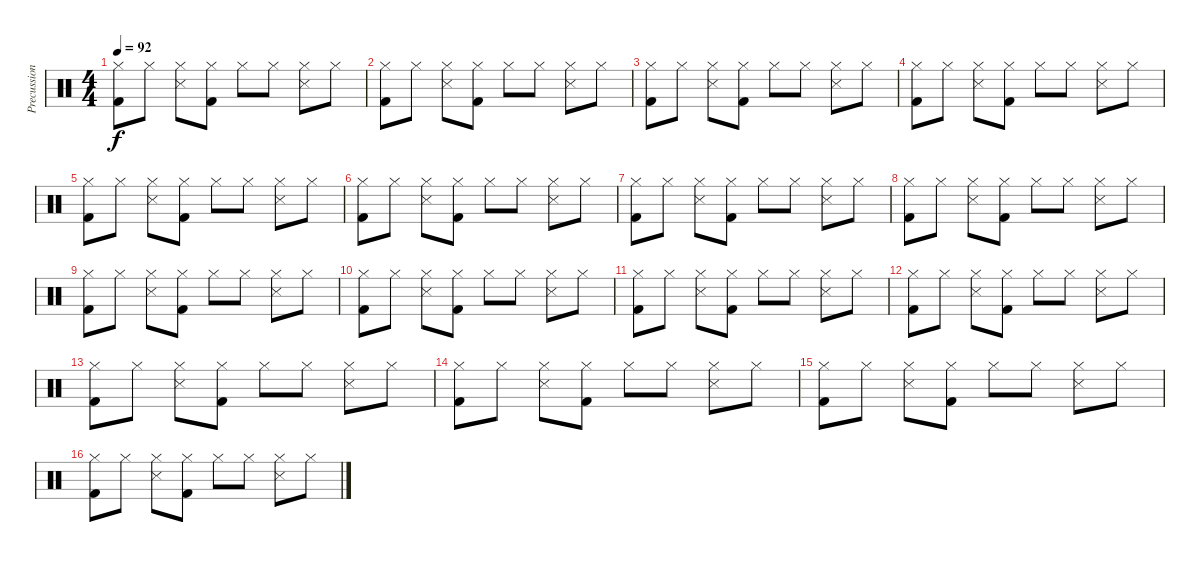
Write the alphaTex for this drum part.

\track ("Precussion" "Precussion") {instrument percussion}
\staff {score}
\articulation defaults
\ts (4 4)
\tempo 92
\clef neutral
\ks c
("Hi-Hat (closed)" "Kick (hit) 2").8{dy f} "Hi-Hat (closed)".8 ("Hi-Hat (closed)" "Snare (side stick) 3").8 ("Hi-Hat (closed)" "Kick (hit) 2").8 "Hi-Hat (closed)".8 "Hi-Hat (closed)".8 ("Hi-Hat (closed)" "Snare (side stick) 3").8 "Hi-Hat (closed)".8 |
("Hi-Hat (closed)" "Kick (hit) 2").8 "Hi-Hat (closed)".8 ("Hi-Hat (closed)" "Snare (side stick) 3").8 ("Hi-Hat (closed)" "Kick (hit) 2").8 "Hi-Hat (closed)".8 "Hi-Hat (closed)".8 ("Hi-Hat (closed)" "Snare (side stick) 3").8 "Hi-Hat (closed)".8 |
("Hi-Hat (closed)" "Kick (hit) 2").8 "Hi-Hat (closed)".8 ("Hi-Hat (closed)" "Snare (side stick) 3").8 ("Hi-Hat (closed)" "Kick (hit) 2").8 "Hi-Hat (closed)".8 "Hi-Hat (closed)".8 ("Hi-Hat (closed)" "Snare (side stick) 3").8 "Hi-Hat (closed)".8 |
("Hi-Hat (closed)" "Kick (hit) 2").8 "Hi-Hat (closed)".8 ("Hi-Hat (closed)" "Snare (side stick) 3").8 ("Hi-Hat (closed)" "Kick (hit) 2").8 "Hi-Hat (closed)".8 "Hi-Hat (closed)".8 ("Hi-Hat (closed)" "Snare (side stick) 3").8 "Hi-Hat (closed)".8 |
("Hi-Hat (closed)" "Kick (hit) 2").8 "Hi-Hat (closed)".8 ("Hi-Hat (closed)" "Snare (side stick) 3").8 ("Hi-Hat (closed)" "Kick (hit) 2").8 "Hi-Hat (closed)".8 "Hi-Hat (closed)".8 ("Hi-Hat (closed)" "Snare (side stick) 3").8 "Hi-Hat (closed)".8 |
("Hi-Hat (closed)" "Kick (hit) 2").8 "Hi-Hat (closed)".8 ("Hi-Hat (closed)" "Snare (side stick) 3").8 ("Hi-Hat (closed)" "Kick (hit) 2").8 "Hi-Hat (closed)".8 "Hi-Hat (closed)".8 ("Hi-Hat (closed)" "Snare (side stick) 3").8 "Hi-Hat (closed)".8 |
("Hi-Hat (closed)" "Kick (hit) 2").8 "Hi-Hat (closed)".8 ("Hi-Hat (closed)" "Snare (side stick) 3").8 ("Hi-Hat (closed)" "Kick (hit) 2").8 "Hi-Hat (closed)".8 "Hi-Hat (closed)".8 ("Hi-Hat (closed)" "Snare (side stick) 3").8 "Hi-Hat (closed)".8 |
("Hi-Hat (closed)" "Kick (hit) 2").8 "Hi-Hat (closed)".8 ("Hi-Hat (closed)" "Snare (side stick) 3").8 ("Hi-Hat (closed)" "Kick (hit) 2").8 "Hi-Hat (closed)".8 "Hi-Hat (closed)".8 ("Hi-Hat (closed)" "Snare (side stick) 3").8 "Hi-Hat (closed)".8 |
("Hi-Hat (closed)" "Kick (hit) 2").8 "Hi-Hat (closed)".8 ("Hi-Hat (closed)" "Snare (side stick) 3").8 ("Hi-Hat (closed)" "Kick (hit) 2").8 "Hi-Hat (closed)".8 "Hi-Hat (closed)".8 ("Hi-Hat (closed)" "Snare (side stick) 3").8 "Hi-Hat (closed)".8 |
("Hi-Hat (closed)" "Kick (hit) 2").8 "Hi-Hat (closed)".8 ("Hi-Hat (closed)" "Snare (side stick) 3").8 ("Hi-Hat (closed)" "Kick (hit) 2").8 "Hi-Hat (closed)".8 "Hi-Hat (closed)".8 ("Hi-Hat (closed)" "Snare (side stick) 3").8 "Hi-Hat (closed)".8 |
("Hi-Hat (closed)" "Kick (hit) 2").8 "Hi-Hat (closed)".8 ("Hi-Hat (closed)" "Snare (side stick) 3").8 ("Hi-Hat (closed)" "Kick (hit) 2").8 "Hi-Hat (closed)".8 "Hi-Hat (closed)".8 ("Hi-Hat (closed)" "Snare (side stick) 3").8 "Hi-Hat (closed)".8 |
("Hi-Hat (closed)" "Kick (hit) 2").8 "Hi-Hat (closed)".8 ("Hi-Hat (closed)" "Snare (side stick) 3").8 ("Hi-Hat (closed)" "Kick (hit) 2").8 "Hi-Hat (closed)".8 "Hi-Hat (closed)".8 ("Hi-Hat (closed)" "Snare (side stick) 3").8 "Hi-Hat (closed)".8 |
("Hi-Hat (closed)" "Kick (hit) 2").8 "Hi-Hat (closed)".8 ("Hi-Hat (closed)" "Snare (side stick) 3").8 ("Hi-Hat (closed)" "Kick (hit) 2").8 "Hi-Hat (closed)".8 "Hi-Hat (closed)".8 ("Hi-Hat (closed)" "Snare (side stick) 3").8 "Hi-Hat (closed)".8 |
("Hi-Hat (closed)" "Kick (hit) 2").8 "Hi-Hat (closed)".8 ("Hi-Hat (closed)" "Snare (side stick) 3").8 ("Hi-Hat (closed)" "Kick (hit) 2").8 "Hi-Hat (closed)".8 "Hi-Hat (closed)".8 ("Hi-Hat (closed)" "Snare (side stick) 3").8 "Hi-Hat (closed)".8 |
("Hi-Hat (closed)" "Kick (hit) 2").8 "Hi-Hat (closed)".8 ("Hi-Hat (closed)" "Snare (side stick) 3").8 ("Hi-Hat (closed)" "Kick (hit) 2").8 "Hi-Hat (closed)".8 "Hi-Hat (closed)".8 ("Hi-Hat (closed)" "Snare (side stick) 3").8 "Hi-Hat (closed)".8 |
("Hi-Hat (closed)" "Kick (hit) 2").8 "Hi-Hat (closed)".8 ("Hi-Hat (closed)" "Snare (side stick) 3").8 ("Hi-Hat (closed)" "Kick (hit) 2").8 "Hi-Hat (closed)".8 "Hi-Hat (closed)".8 ("Hi-Hat (closed)" "Snare (side stick) 3").8 "Hi-Hat (closed)".8
